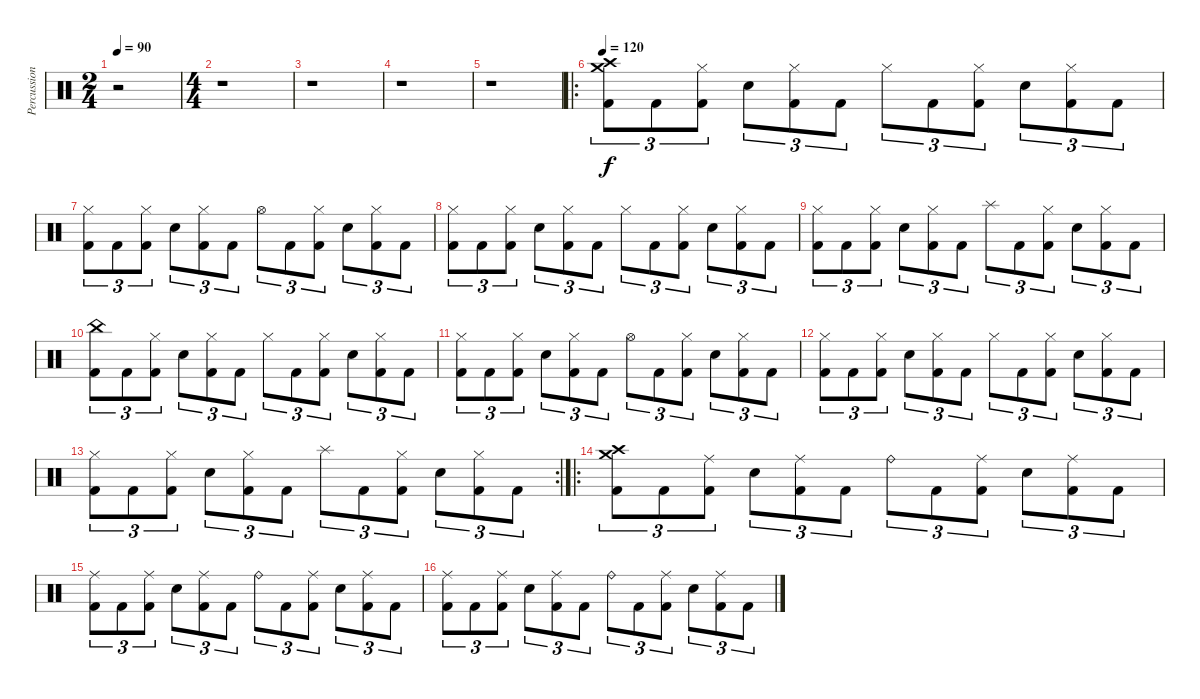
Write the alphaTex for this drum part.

\track ("Percussions" "Percussion") {instrument percussion}
\staff {score}
\articulation defaults
\ts (2 4)
\tempo 90
\clef neutral
\ks c
r.2{dy f} |
\ts (4 4)
r.1 |
r.1 |
r.1 |
r.1 |
\ro
\tempo 120
("Crash medium (hit)" "Crash high (hit)" "Kick (hit) 2").8{tu (3 2)} "Kick (hit) 2".8{tu (3 2)} ("Hi-Hat (closed)" "Kick (hit) 2").8{tu (3 2)} "Electric Snare (hit)".8{tu (3 2)} ("Hi-Hat (closed)" "Kick (hit) 2").8{tu (3 2)} "Kick (hit) 2".8{tu (3 2)} "Hi-Hat (closed)".8{tu (3 2)} "Kick (hit) 2".8{tu (3 2)} ("Hi-Hat (closed)" "Kick (hit) 2").8{tu (3 2)} "Electric Snare (hit)".8{tu (3 2)} ("Hi-Hat (closed)" "Kick (hit) 2").8{tu (3 2)} "Kick (hit) 2".8{tu (3 2)} |
("Hi-Hat (closed)" "Kick (hit) 2").8{tu (3 2)} "Kick (hit) 2".8{tu (3 2)} ("Hi-Hat (closed)" "Kick (hit) 2").8{tu (3 2)} "Electric Snare (hit)".8{tu (3 2)} ("Hi-Hat (closed)" "Kick (hit) 2").8{tu (3 2)} "Kick (hit) 2".8{tu (3 2)} "Hi-Hat (open)".8{tu (3 2)} "Kick (hit) 2".8{tu (3 2)} ("Hi-Hat (closed)" "Kick (hit) 2").8{tu (3 2)} "Electric Snare (hit)".8{tu (3 2)} ("Hi-Hat (closed)" "Kick (hit) 2").8{tu (3 2)} "Kick (hit) 2".8{tu (3 2)} |
("Hi-Hat (closed)" "Kick (hit) 2").8{tu (3 2)} "Kick (hit) 2".8{tu (3 2)} ("Hi-Hat (closed)" "Kick (hit) 2").8{tu (3 2)} "Electric Snare (hit)".8{tu (3 2)} ("Hi-Hat (closed)" "Kick (hit) 2").8{tu (3 2)} "Kick (hit) 2".8{tu (3 2)} "Hi-Hat (closed)".8{tu (3 2)} "Kick (hit) 2".8{tu (3 2)} ("Hi-Hat (closed)" "Kick (hit) 2").8{tu (3 2)} "Electric Snare (hit)".8{tu (3 2)} ("Hi-Hat (closed)" "Kick (hit) 2").8{tu (3 2)} "Kick (hit) 2".8{tu (3 2)} |
("Hi-Hat (closed)" "Kick (hit) 2").8{tu (3 2)} "Kick (hit) 2".8{tu (3 2)} ("Hi-Hat (closed)" "Kick (hit) 2").8{tu (3 2)} "Electric Snare (hit)".8{tu (3 2)} ("Hi-Hat (closed)" "Kick (hit) 2").8{tu (3 2)} "Kick (hit) 2".8{tu (3 2)} "Splash (hit)".8{tu (3 2)} "Kick (hit) 2".8{tu (3 2)} ("Hi-Hat (closed)" "Kick (hit) 2").8{tu (3 2)} "Electric Snare (hit)".8{tu (3 2)} ("Hi-Hat (closed)" "Kick (hit) 2").8{tu (3 2)} "Kick (hit) 2".8{tu (3 2)} |
("China (hit)" "Kick (hit) 2").8{tu (3 2)} "Kick (hit) 2".8{tu (3 2)} ("Hi-Hat (closed)" "Kick (hit) 2").8{tu (3 2)} "Electric Snare (hit)".8{tu (3 2)} ("Hi-Hat (closed)" "Kick (hit) 2").8{tu (3 2)} "Kick (hit) 2".8{tu (3 2)} "Hi-Hat (closed)".8{tu (3 2)} "Kick (hit) 2".8{tu (3 2)} ("Hi-Hat (closed)" "Kick (hit) 2").8{tu (3 2)} "Electric Snare (hit)".8{tu (3 2)} ("Hi-Hat (closed)" "Kick (hit) 2").8{tu (3 2)} "Kick (hit) 2".8{tu (3 2)} |
("Hi-Hat (closed)" "Kick (hit) 2").8{tu (3 2)} "Kick (hit) 2".8{tu (3 2)} ("Hi-Hat (closed)" "Kick (hit) 2").8{tu (3 2)} "Electric Snare (hit)".8{tu (3 2)} ("Hi-Hat (closed)" "Kick (hit) 2").8{tu (3 2)} "Kick (hit) 2".8{tu (3 2)} "Hi-Hat (open)".8{tu (3 2)} "Kick (hit) 2".8{tu (3 2)} ("Hi-Hat (closed)" "Kick (hit) 2").8{tu (3 2)} "Electric Snare (hit)".8{tu (3 2)} ("Hi-Hat (closed)" "Kick (hit) 2").8{tu (3 2)} "Kick (hit) 2".8{tu (3 2)} |
("Hi-Hat (closed)" "Kick (hit) 2").8{tu (3 2)} "Kick (hit) 2".8{tu (3 2)} ("Hi-Hat (closed)" "Kick (hit) 2").8{tu (3 2)} "Electric Snare (hit)".8{tu (3 2)} ("Hi-Hat (closed)" "Kick (hit) 2").8{tu (3 2)} "Kick (hit) 2".8{tu (3 2)} "Hi-Hat (closed)".8{tu (3 2)} "Kick (hit) 2".8{tu (3 2)} ("Hi-Hat (closed)" "Kick (hit) 2").8{tu (3 2)} "Electric Snare (hit)".8{tu (3 2)} ("Hi-Hat (closed)" "Kick (hit) 2").8{tu (3 2)} "Kick (hit) 2".8{tu (3 2)} |
\rc 2
("Hi-Hat (closed)" "Kick (hit) 2").8{tu (3 2)} "Kick (hit) 2".8{tu (3 2)} ("Hi-Hat (closed)" "Kick (hit) 2").8{tu (3 2)} "Electric Snare (hit)".8{tu (3 2)} ("Hi-Hat (closed)" "Kick (hit) 2").8{tu (3 2)} "Kick (hit) 2".8{tu (3 2)} "Splash (hit)".8{tu (3 2)} "Kick (hit) 2".8{tu (3 2)} ("Hi-Hat (closed)" "Kick (hit) 2").8{tu (3 2)} "Electric Snare (hit)".8{tu (3 2)} ("Hi-Hat (closed)" "Kick (hit) 2").8{tu (3 2)} "Kick (hit) 2".8{tu (3 2)} |
\ro
("Crash medium (hit)" "Crash high (hit)" "Kick (hit) 2").8{tu (3 2)} "Kick (hit) 2".8{tu (3 2)} ("Ride (middle)" "Kick (hit) 2").8{tu (3 2)} "Electric Snare (hit)".8{tu (3 2)} ("Ride (middle)" "Kick (hit) 2").8{tu (3 2)} "Kick (hit) 2".8{tu (3 2)} "Ride (bell)".8{tu (3 2)} "Kick (hit) 2".8{tu (3 2)} ("Ride (middle)" "Kick (hit) 2").8{tu (3 2)} "Electric Snare (hit)".8{tu (3 2)} ("Ride (middle)" "Kick (hit) 2").8{tu (3 2)} "Kick (hit) 2".8{tu (3 2)} |
("Ride (middle)" "Kick (hit) 2").8{tu (3 2)} "Kick (hit) 2".8{tu (3 2)} ("Ride (middle)" "Kick (hit) 2").8{tu (3 2)} "Electric Snare (hit)".8{tu (3 2)} ("Ride (middle)" "Kick (hit) 2").8{tu (3 2)} "Kick (hit) 2".8{tu (3 2)} "Ride (bell)".8{tu (3 2)} "Kick (hit) 2".8{tu (3 2)} ("Ride (middle)" "Kick (hit) 2").8{tu (3 2)} "Electric Snare (hit)".8{tu (3 2)} ("Ride (middle)" "Kick (hit) 2").8{tu (3 2)} "Kick (hit) 2".8{tu (3 2)} |
("Ride (middle)" "Kick (hit) 2").8{tu (3 2)} "Kick (hit) 2".8{tu (3 2)} ("Ride (middle)" "Kick (hit) 2").8{tu (3 2)} "Electric Snare (hit)".8{tu (3 2)} ("Ride (middle)" "Kick (hit) 2").8{tu (3 2)} "Kick (hit) 2".8{tu (3 2)} "Ride (bell)".8{tu (3 2)} "Kick (hit) 2".8{tu (3 2)} ("Ride (middle)" "Kick (hit) 2").8{tu (3 2)} "Electric Snare (hit)".8{tu (3 2)} ("Ride (middle)" "Kick (hit) 2").8{tu (3 2)} "Kick (hit) 2".8{tu (3 2)}
